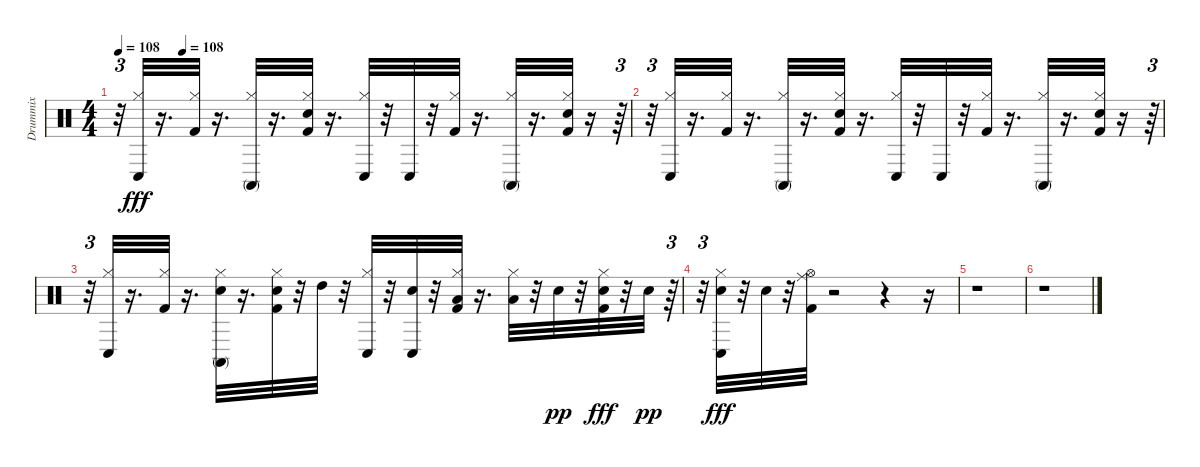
\track ("Drummix" "Drummix") {instrument percussion}
\staff {score}
\articulation defaults
\ts (4 4)
\tempo 108
\tempo (108 0.125)
\clef neutral
\ks c
r.32{tu (3 2) dy fff} ("Hi-Hat (closed)" "Conga low (hit)").32 r.16{d} ("Kick (hit) 2" "Hi-Hat (closed)").32 r.16{d} ("Hi-Hat (closed)" "Conga high (mute)").32 r.16{d} ("Kick (hit) 2" "Snare (hit) 2" "Hi-Hat (closed)").32 r.16{d} ("Hi-Hat (closed)" "Conga low (hit)").32 r.32 "Conga low (hit)".32 r.32 ("Kick (hit) 2" "Hi-Hat (closed)").32 r.16{d} ("Hi-Hat (closed)" "Conga high (mute)").32 r.16{d} ("Kick (hit) 2" "Snare (hit) 2" "Hi-Hat (closed)").32 r.16 r.64{tu (3 2)} |
r.32{tu (3 2)} ("Hi-Hat (closed)" "Conga low (hit)").32 r.16{d} ("Kick (hit) 2" "Hi-Hat (closed)").32 r.16{d} ("Hi-Hat (closed)" "Conga high (mute)").32 r.16{d} ("Kick (hit) 2" "Snare (hit) 2" "Hi-Hat (closed)").32 r.16{d} ("Hi-Hat (closed)" "Conga low (hit)").32 r.32 "Conga low (hit)".32 r.32 ("Kick (hit) 2" "Hi-Hat (closed)").32 r.16{d} ("Hi-Hat (closed)" "Conga high (mute)").32 r.16{d} ("Kick (hit) 2" "Snare (hit) 2" "Hi-Hat (closed)").32 r.16 r.64{tu (3 2)} |
r.32{tu (3 2)} ("Hi-Hat (closed)" "Conga low (hit)").32 r.16{d} ("Kick (hit) 2" "Hi-Hat (closed)").32 r.16{d} ("Snare (hit) 2" "Hi-Hat (closed)" "Conga high (mute)").32 r.16{d} ("Kick (hit) 2" "Snare (hit) 2" "Hi-Hat (closed)").32 r.32 "High Tom (hit)".32 r.32 ("Hi-Hat (closed)" "Conga low (hit)").32 r.32 ("Snare (hit) 2" "Conga low (hit)").32 r.32 ("Kick (hit) 2" "Hi-Hat (closed)" "Low Tom (hit)").32 r.16{d} ("Hi-Hat (closed)" "Low Floor Tom (hit)").32 r.32 "Snare (hit) 2".32{dy pp} r.32 ("Kick (hit) 2" "Snare (hit) 2" "Hi-Hat (closed)").32{dy fff} r.32 "Snare (hit) 2".32{dy pp} r.64{tu (3 2)} |
r.32{tu (3 2)} ("Snare (hit) 2" "Hi-Hat (closed)" "Conga low (hit)").32{dy fff} r.32 "Snare (hit) 2".32 r.32 ("Kick (hit) 2" "Hi-Hat (open)" "Ride (middle)").32 r.2 r.4 r.16 |
r.1 |
r.1
